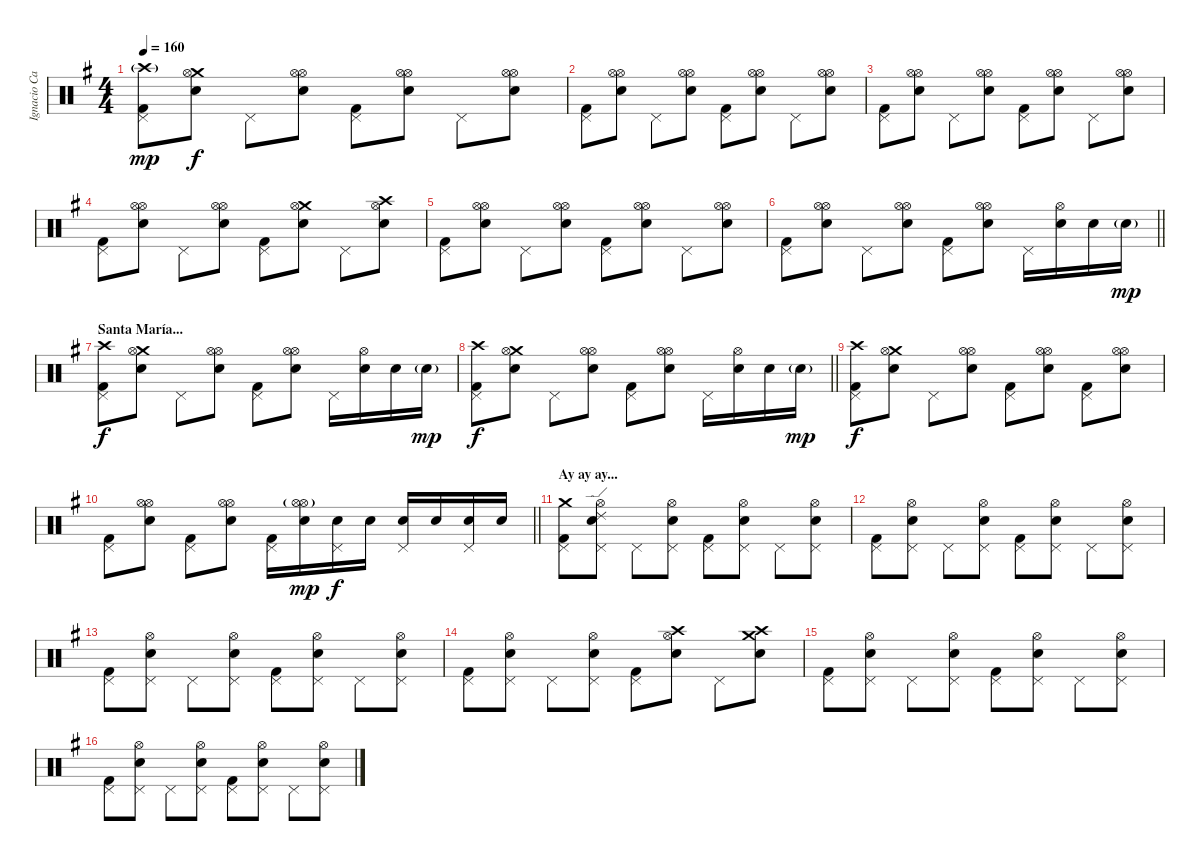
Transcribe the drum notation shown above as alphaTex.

\track ("Ignacio Cantera - Batería" "Ignacio Ca") {instrument percussion}
\staff {score}
\articulation defaults
\ts (4 4)
\section ("" "")
\tempo 160
\clef neutral
\ks eminor
("Pedal Hi-Hat (hit)" "Crash high (hit)"{g} "Kick (hit) 2").8{dy mp} ("Crash medium (hit)" "Snare (hit) 2" "Hi-Hat (open)").8{dy f} "Pedal Hi-Hat (hit)".8 ("Hi-Hat (open)" "Snare (hit) 2" "Hi-Hat (open)").8 ("Pedal Hi-Hat (hit)" "Kick (hit) 2").8 ("Hi-Hat (open)" "Snare (hit) 2" "Hi-Hat (open)").8 "Pedal Hi-Hat (hit)".8 ("Hi-Hat (open)" "Snare (hit) 2" "Hi-Hat (open)").8 |
("Pedal Hi-Hat (hit)" "Kick (hit) 2").8 ("Hi-Hat (open)" "Snare (hit) 2" "Hi-Hat (open)").8 "Pedal Hi-Hat (hit)".8 ("Hi-Hat (open)" "Snare (hit) 2" "Hi-Hat (open)").8 ("Pedal Hi-Hat (hit)" "Kick (hit) 2").8 ("Hi-Hat (open)" "Snare (hit) 2" "Hi-Hat (open)").8 "Pedal Hi-Hat (hit)".8 ("Hi-Hat (open)" "Snare (hit) 2" "Hi-Hat (open)").8 |
("Pedal Hi-Hat (hit)" "Kick (hit) 2").8 ("Hi-Hat (open)" "Snare (hit) 2" "Hi-Hat (open)").8 "Pedal Hi-Hat (hit)".8 ("Hi-Hat (open)" "Snare (hit) 2" "Hi-Hat (open)").8 ("Pedal Hi-Hat (hit)" "Kick (hit) 2").8 ("Hi-Hat (open)" "Snare (hit) 2" "Hi-Hat (open)").8 "Pedal Hi-Hat (hit)".8 ("Hi-Hat (open)" "Snare (hit) 2" "Hi-Hat (open)").8 |
("Pedal Hi-Hat (hit)" "Kick (hit) 2").8 ("Hi-Hat (open)" "Snare (hit) 2" "Hi-Hat (open)").8 "Pedal Hi-Hat (hit)".8 ("Hi-Hat (open)" "Snare (hit) 2" "Hi-Hat (open)").8 ("Pedal Hi-Hat (hit)" "Kick (hit) 2").8 ("Crash medium (hit)" "Snare (hit) 2" "Hi-Hat (open)").8 "Pedal Hi-Hat (hit)".8 ("Crash high (hit)" "Snare (hit) 2" "Hi-Hat (open)").8 |
("Pedal Hi-Hat (hit)" "Kick (hit) 2").8 ("Hi-Hat (open)" "Snare (hit) 2" "Hi-Hat (open)").8 "Pedal Hi-Hat (hit)".8 ("Hi-Hat (open)" "Snare (hit) 2" "Hi-Hat (open)").8 ("Pedal Hi-Hat (hit)" "Kick (hit) 2").8 ("Hi-Hat (open)" "Snare (hit) 2" "Hi-Hat (open)").8 "Pedal Hi-Hat (hit)".8 ("Hi-Hat (open)" "Snare (hit) 2" "Hi-Hat (open)").8 |
\barLineRight lightlight
("Pedal Hi-Hat (hit)" "Kick (hit) 2").8 ("Hi-Hat (open)" "Snare (hit) 2" "Hi-Hat (open)").8 "Pedal Hi-Hat (hit)".8 ("Hi-Hat (open)" "Snare (hit) 2" "Hi-Hat (open)").8 ("Pedal Hi-Hat (hit)" "Kick (hit) 2").8 ("Hi-Hat (open)" "Snare (hit) 2" "Hi-Hat (open)").8 "Pedal Hi-Hat (hit)".16 ("Hi-Hat (open)" "Snare (hit) 2").16 "Snare (hit) 2".16 "Snare (hit) 2"{g}.16{dy mp} |
\section ("" "Santa María...")
("Pedal Hi-Hat (hit)" "Crash high (hit)" "Kick (hit) 2").8{dy f} ("Crash medium (hit)" "Snare (hit) 2" "Hi-Hat (open)").8 "Pedal Hi-Hat (hit)".8 ("Hi-Hat (open)" "Snare (hit) 2" "Hi-Hat (open)").8 ("Pedal Hi-Hat (hit)" "Kick (hit) 2").8 ("Hi-Hat (open)" "Snare (hit) 2" "Hi-Hat (open)").8 "Pedal Hi-Hat (hit)".16 ("Hi-Hat (open)" "Snare (hit) 2").16 "Snare (hit) 2".16 "Snare (hit) 2"{g}.16{dy mp} |
\barLineRight lightlight
("Pedal Hi-Hat (hit)" "Crash high (hit)" "Kick (hit) 2").8{dy f} ("Crash medium (hit)" "Snare (hit) 2" "Hi-Hat (open)").8 "Pedal Hi-Hat (hit)".8 ("Hi-Hat (open)" "Snare (hit) 2" "Hi-Hat (open)").8 ("Pedal Hi-Hat (hit)" "Kick (hit) 2").8 ("Hi-Hat (open)" "Snare (hit) 2" "Hi-Hat (open)").8 "Pedal Hi-Hat (hit)".16 ("Hi-Hat (open)" "Snare (hit) 2").16 "Snare (hit) 2".16 "Snare (hit) 2"{g}.16{dy mp} |
("Pedal Hi-Hat (hit)" "Crash high (hit)" "Kick (hit) 2").8{dy f} ("Crash medium (hit)" "Snare (hit) 2" "Hi-Hat (open)").8 "Pedal Hi-Hat (hit)".8 ("Hi-Hat (open)" "Snare (hit) 2" "Hi-Hat (open)").8 ("Pedal Hi-Hat (hit)" "Kick (hit) 2").8 ("Hi-Hat (open)" "Snare (hit) 2" "Hi-Hat (open)").8 ("Pedal Hi-Hat (hit)" "Kick (hit) 2").8 ("Hi-Hat (open)" "Snare (hit) 2" "Hi-Hat (open)").8 |
\barLineRight lightlight
("Pedal Hi-Hat (hit)" "Kick (hit) 2").8 ("Hi-Hat (open)" "Snare (hit) 2" "Hi-Hat (open)").8 ("Pedal Hi-Hat (hit)" "Kick (hit) 2").8 ("Hi-Hat (open)" "Snare (hit) 2" "Hi-Hat (open)").8 ("Pedal Hi-Hat (hit)" "Kick (hit) 2").16 ("Hi-Hat (open)"{g} "Snare (hit) 2" "Hi-Hat (open)").16{dy mp} ("Pedal Hi-Hat (hit)" "Electric Snare (hit)").16{dy f} "Electric Snare (hit)".16 ("Pedal Hi-Hat (hit)" "Electric Snare (hit)").16 "Electric Snare (hit)".16 ("Pedal Hi-Hat (hit)" "Electric Snare (hit)").16 "Electric Snare (hit)".16 |
\section ("" "Ay ay ay...")
("Pedal Hi-Hat (hit)" "Crash medium (hit)" "Kick (hit) 2").8 ("Pedal Hi-Hat (hit)" "Snare (hit) 2" "Hi-Hat (open)" "Ride (edge) 2").8 "Pedal Hi-Hat (hit)".8 ("Pedal Hi-Hat (hit)" "Snare (hit) 2" "Hi-Hat (open)").8 ("Pedal Hi-Hat (hit)" "Kick (hit) 2").8 ("Pedal Hi-Hat (hit)" "Snare (hit) 2" "Hi-Hat (open)").8 "Pedal Hi-Hat (hit)".8 ("Pedal Hi-Hat (hit)" "Snare (hit) 2" "Hi-Hat (open)").8 |
("Pedal Hi-Hat (hit)" "Kick (hit) 2").8 ("Pedal Hi-Hat (hit)" "Snare (hit) 2" "Hi-Hat (open)").8 "Pedal Hi-Hat (hit)".8 ("Pedal Hi-Hat (hit)" "Snare (hit) 2" "Hi-Hat (open)").8 ("Pedal Hi-Hat (hit)" "Kick (hit) 2").8 ("Pedal Hi-Hat (hit)" "Snare (hit) 2" "Hi-Hat (open)").8 "Pedal Hi-Hat (hit)".8 ("Pedal Hi-Hat (hit)" "Snare (hit) 2" "Hi-Hat (open)").8 |
("Pedal Hi-Hat (hit)" "Kick (hit) 2").8 ("Pedal Hi-Hat (hit)" "Snare (hit) 2" "Hi-Hat (open)").8 "Pedal Hi-Hat (hit)".8 ("Pedal Hi-Hat (hit)" "Snare (hit) 2" "Hi-Hat (open)").8 ("Pedal Hi-Hat (hit)" "Kick (hit) 2").8 ("Pedal Hi-Hat (hit)" "Snare (hit) 2" "Hi-Hat (open)").8 "Pedal Hi-Hat (hit)".8 ("Pedal Hi-Hat (hit)" "Snare (hit) 2" "Hi-Hat (open)").8 |
("Pedal Hi-Hat (hit)" "Kick (hit) 2").8 ("Pedal Hi-Hat (hit)" "Snare (hit) 2" "Hi-Hat (open)").8 "Pedal Hi-Hat (hit)".8 ("Pedal Hi-Hat (hit)" "Snare (hit) 2" "Hi-Hat (open)").8 ("Pedal Hi-Hat (hit)" "Kick (hit) 2").8 ("Crash high (hit)" "Snare (hit) 2" "Hi-Hat (open)").8 "Pedal Hi-Hat (hit)".8 ("Crash medium (hit)" "Snare (hit) 2" "Crash high (hit)").8 |
("Pedal Hi-Hat (hit)" "Kick (hit) 2").8 ("Pedal Hi-Hat (hit)" "Snare (hit) 2" "Hi-Hat (open)").8 "Pedal Hi-Hat (hit)".8 ("Pedal Hi-Hat (hit)" "Snare (hit) 2" "Hi-Hat (open)").8 ("Pedal Hi-Hat (hit)" "Kick (hit) 2").8 ("Pedal Hi-Hat (hit)" "Snare (hit) 2" "Hi-Hat (open)").8 "Pedal Hi-Hat (hit)".8 ("Pedal Hi-Hat (hit)" "Snare (hit) 2" "Hi-Hat (open)").8 |
("Pedal Hi-Hat (hit)" "Kick (hit) 2").8 ("Pedal Hi-Hat (hit)" "Snare (hit) 2" "Hi-Hat (open)").8 "Pedal Hi-Hat (hit)".8 ("Pedal Hi-Hat (hit)" "Snare (hit) 2" "Hi-Hat (open)").8 ("Pedal Hi-Hat (hit)" "Kick (hit) 2").8 ("Pedal Hi-Hat (hit)" "Snare (hit) 2" "Hi-Hat (open)").8 "Pedal Hi-Hat (hit)".8 ("Pedal Hi-Hat (hit)" "Snare (hit) 2" "Hi-Hat (open)").8
